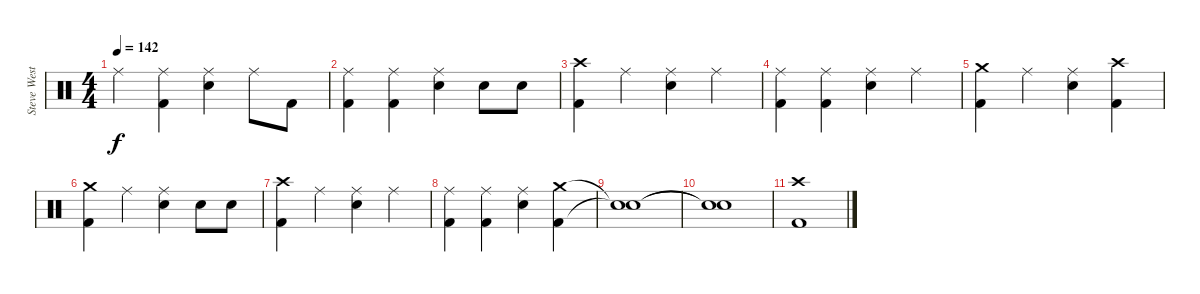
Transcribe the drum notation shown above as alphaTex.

\track ("Steve West" "Steve West") {instrument percussion}
\staff {score}
\articulation defaults
\ts (4 4)
\tempo 142
\clef neutral
\ks c "Ride (middle)".4{dy f}
("Kick (hit) 2" "Ride (middle)").4 ("Electric Snare (hit)" "Ride (middle)").4 "Ride (middle)".8 "Kick (hit) 2".8 |
("Kick (hit) 2" "Ride (middle)").4 ("Kick (hit) 2" "Ride (middle)").4 ("Electric Snare (hit)" "Ride (middle)").4 "Electric Snare (hit)".8 "Electric Snare (hit)".8 |
("Kick (hit) 2" "Crash high (hit)").4 "Ride (middle)".4 ("Electric Snare (hit)" "Ride (middle)").4 "Ride (middle)".4 |
("Kick (hit) 2" "Ride (middle)").4 ("Kick (hit) 2" "Ride (middle)").4 ("Electric Snare (hit)" "Ride (middle)").4 "Ride (middle)".4 |
("Kick (hit) 2" "Crash medium (hit)").4 "Ride (middle)".4 ("Electric Snare (hit)" "Ride (middle)").4 ("Kick (hit) 2" "Crash high (hit)").4 |
("Kick (hit) 2" "Crash medium (hit)").4 "Ride (middle)".4 ("Electric Snare (hit)" "Ride (middle)").4 "Electric Snare (hit)".8 "Electric Snare (hit)".8 |
("Kick (hit) 2" "Crash high (hit)").4 "Ride (middle)".4 ("Electric Snare (hit)" "Ride (middle)").4 "Ride (middle)".4 |
("Kick (hit) 2" "Ride (middle)").4 ("Kick (hit) 2" "Ride (middle)").4 ("Electric Snare (hit)" "Ride (middle)").4 ("Kick (hit) 2" "Crash medium (hit)").4 |
("Snare (hit)"{t} "Snare (hit)"{t}).1 |
("Snare (hit)"{t} "Snare (hit)"{t}).1 |
("Kick (hit) 2" "Crash high (hit)").1
